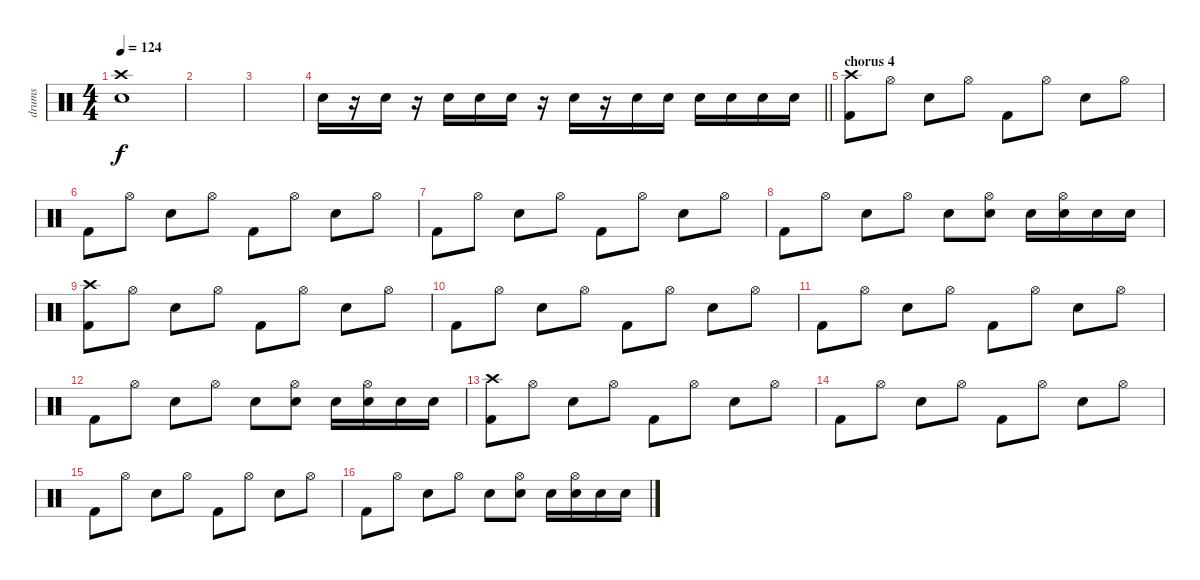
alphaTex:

\track ("drums" "drums") {instrument percussion}
\staff {score}
\articulation defaults
\ts (4 4)
\tempo 124
\clef neutral
\ks c
("Electric Snare (hit)" "Crash high (hit)").1{dy f} |
|
|
\barLineRight lightlight "Electric Snare (hit)".16
r.16 "Electric Snare (hit)".16 r.16 "Electric Snare (hit)".16 "Electric Snare (hit)".16 "Electric Snare (hit)".16 r.16 "Electric Snare (hit)".16 r.16 "Electric Snare (hit)".16 "Electric Snare (hit)".16 "Electric Snare (hit)".16 "Electric Snare (hit)".16 "Electric Snare (hit)".16 "Electric Snare (hit)".16 |
\section ("" "chorus 4")
("Kick (hit) 2" "Crash high (hit)").8 "Hi-Hat (open)".8 "Electric Snare (hit)".8 "Hi-Hat (open)".8 "Kick (hit) 2".8 "Hi-Hat (open)".8 "Electric Snare (hit)".8 "Hi-Hat (open)".8 |
"Kick (hit) 2".8 "Hi-Hat (open)".8 "Electric Snare (hit)".8 "Hi-Hat (open)".8 "Kick (hit) 2".8 "Hi-Hat (open)".8 "Electric Snare (hit)".8 "Hi-Hat (open)".8 |
"Kick (hit) 2".8 "Hi-Hat (open)".8 "Electric Snare (hit)".8 "Hi-Hat (open)".8 "Kick (hit) 2".8 "Hi-Hat (open)".8 "Electric Snare (hit)".8 "Hi-Hat (open)".8 |
"Kick (hit) 2".8 "Hi-Hat (open)".8 "Electric Snare (hit)".8 "Hi-Hat (open)".8 "Electric Snare (hit)".8 ("Electric Snare (hit)" "Hi-Hat (open)").8 "Electric Snare (hit)".16 ("Electric Snare (hit)" "Hi-Hat (open)").16 "Electric Snare (hit)".16 "Electric Snare (hit)".16 |
("Kick (hit) 2" "Crash high (hit)").8 "Hi-Hat (open)".8 "Electric Snare (hit)".8 "Hi-Hat (open)".8 "Kick (hit) 2".8 "Hi-Hat (open)".8 "Electric Snare (hit)".8 "Hi-Hat (open)".8 |
"Kick (hit) 2".8 "Hi-Hat (open)".8 "Electric Snare (hit)".8 "Hi-Hat (open)".8 "Kick (hit) 2".8 "Hi-Hat (open)".8 "Electric Snare (hit)".8 "Hi-Hat (open)".8 |
"Kick (hit) 2".8 "Hi-Hat (open)".8 "Electric Snare (hit)".8 "Hi-Hat (open)".8 "Kick (hit) 2".8 "Hi-Hat (open)".8 "Electric Snare (hit)".8 "Hi-Hat (open)".8 |
"Kick (hit) 2".8 "Hi-Hat (open)".8 "Electric Snare (hit)".8 "Hi-Hat (open)".8 "Electric Snare (hit)".8 ("Electric Snare (hit)" "Hi-Hat (open)").8 "Electric Snare (hit)".16 ("Electric Snare (hit)" "Hi-Hat (open)").16 "Electric Snare (hit)".16 "Electric Snare (hit)".16 |
("Kick (hit) 2" "Crash high (hit)").8 "Hi-Hat (open)".8 "Electric Snare (hit)".8 "Hi-Hat (open)".8 "Kick (hit) 2".8 "Hi-Hat (open)".8 "Electric Snare (hit)".8 "Hi-Hat (open)".8 |
"Kick (hit) 2".8 "Hi-Hat (open)".8 "Electric Snare (hit)".8 "Hi-Hat (open)".8 "Kick (hit) 2".8 "Hi-Hat (open)".8 "Electric Snare (hit)".8 "Hi-Hat (open)".8 |
"Kick (hit) 2".8 "Hi-Hat (open)".8 "Electric Snare (hit)".8 "Hi-Hat (open)".8 "Kick (hit) 2".8 "Hi-Hat (open)".8 "Electric Snare (hit)".8 "Hi-Hat (open)".8 |
"Kick (hit) 2".8 "Hi-Hat (open)".8 "Electric Snare (hit)".8 "Hi-Hat (open)".8 "Electric Snare (hit)".8 ("Electric Snare (hit)" "Hi-Hat (open)").8 "Electric Snare (hit)".16 ("Electric Snare (hit)" "Hi-Hat (open)").16 "Electric Snare (hit)".16 "Electric Snare (hit)".16
